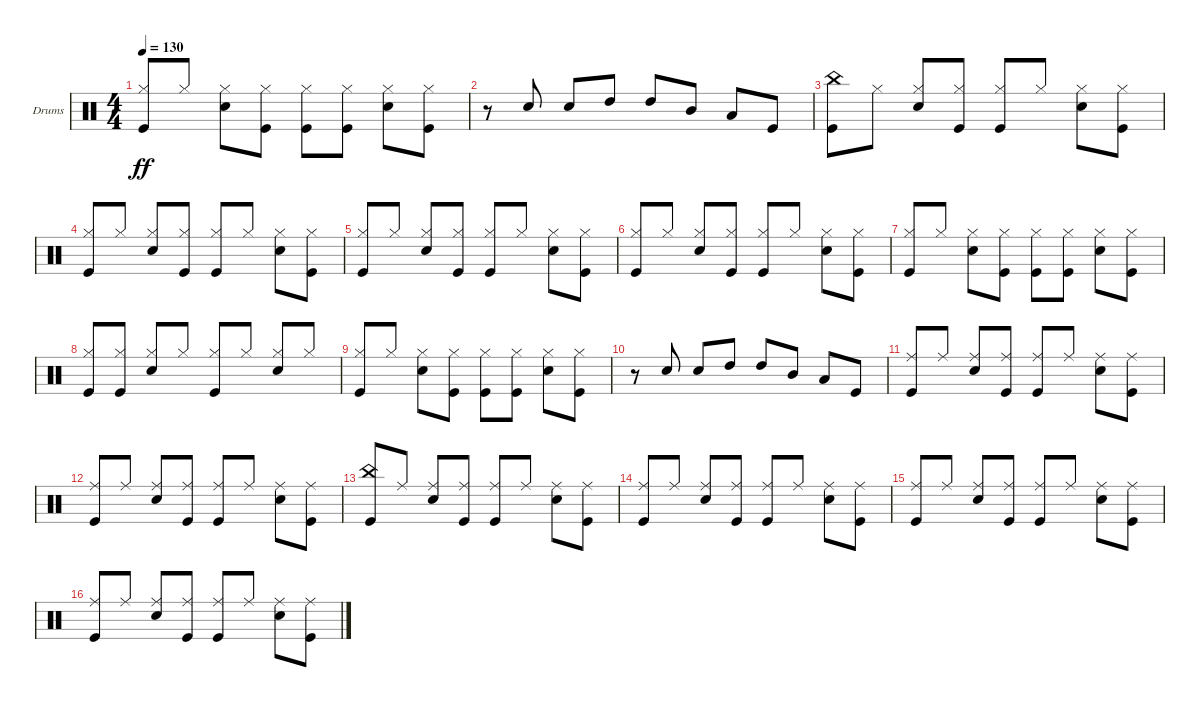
\defaultSystemsLayout 4
\bracketExtendMode groupsimilarinstruments
\firstSystemTrackNameOrientation horizontal
\otherSystemsTrackNameOrientation horizontal
\track ("Drumkit" "Drums") {instrument percussion}
\staff {score}
\articulation defaults
\ts (4 4)
\tempo 130
\clef neutral
\scale
0.333333
\ks c
("Kick (hit)" "Hi-Hat (closed)").8{dy ff beam invert} "Hi-Hat (closed)".8 ("Snare (hit) 2" "Hi-Hat (closed)").8 ("Kick (hit)" "Hi-Hat (closed)").8 ("Kick (hit)" "Hi-Hat (closed)").8 ("Kick (hit)" "Hi-Hat (closed)").8 ("Snare (hit) 2" "Hi-Hat (closed)").8 ("Kick (hit)" "Hi-Hat (closed)").8 |
\scale
0.333333 r.8 "Snare (hit) 2".8{beam invert} "Snare (hit) 2".8{beam invert} "High Tom (hit)".8 "High Tom (hit)".8{beam invert} "Mid Tom (hit)".8 "Low Tom (hit)".8 "Kick (hit)".8 |
\scale
0.333333 ("Kick (hit)" "China (hit)").8 "Hi-Hat (closed)".8 ("Hi-Hat (closed)" "Snare (hit) 2").8 ("Hi-Hat (closed)" "Kick (hit)").8 ("Hi-Hat (closed)" "Kick (hit)").8{beam invert} "Hi-Hat (closed)".8 ("Hi-Hat (closed)" "Snare (hit) 2").8 ("Hi-Hat (closed)" "Kick (hit)").8 |
\scale
0.333333 ("Hi-Hat (closed)" "Kick (hit)").8{beam invert} "Hi-Hat (closed)".8 ("Hi-Hat (closed)" "Snare (hit) 2").8 ("Hi-Hat (closed)" "Kick (hit)").8 ("Hi-Hat (closed)" "Kick (hit)").8{beam invert} "Hi-Hat (closed)".8 ("Hi-Hat (closed)" "Snare (hit) 2").8 ("Hi-Hat (closed)" "Kick (hit)").8 |
\scale
0.333333 ("Hi-Hat (closed)" "Kick (hit)").8{beam invert} "Hi-Hat (closed)".8 ("Hi-Hat (closed)" "Snare (hit) 2").8 ("Hi-Hat (closed)" "Kick (hit)").8 ("Hi-Hat (closed)" "Kick (hit)").8{beam invert} "Hi-Hat (closed)".8 ("Hi-Hat (closed)" "Snare (hit) 2").8 ("Hi-Hat (closed)" "Kick (hit)").8 |
\scale
0.333333 ("Hi-Hat (closed)" "Kick (hit)").8{beam invert} "Hi-Hat (closed)".8 ("Hi-Hat (closed)" "Snare (hit) 2").8 ("Hi-Hat (closed)" "Kick (hit)").8 ("Hi-Hat (closed)" "Kick (hit)").8{beam invert} "Hi-Hat (closed)".8 ("Hi-Hat (closed)" "Snare (hit) 2").8 ("Hi-Hat (closed)" "Kick (hit)").8 |
\scale
0.333333 ("Kick (hit)" "Hi-Hat (closed)").8{beam invert} "Hi-Hat (closed)".8 ("Snare (hit) 2" "Hi-Hat (closed)").8 ("Kick (hit)" "Hi-Hat (closed)").8 ("Kick (hit)" "Hi-Hat (closed)").8 ("Kick (hit)" "Hi-Hat (closed)").8 ("Snare (hit) 2" "Hi-Hat (closed)").8 ("Kick (hit)" "Hi-Hat (closed)").8 |
\scale
0.333333 ("Kick (hit)" "Hi-Hat (closed)").8 ("Kick (hit)" "Hi-Hat (closed)").8 ("Snare (hit) 2" "Hi-Hat (closed)").8{beam invert} "Hi-Hat (closed)".8 ("Hi-Hat (closed)" "Kick (hit)").8{beam invert} "Hi-Hat (closed)".8 ("Hi-Hat (closed)" "Snare (hit) 2").8{beam invert} "Hi-Hat (closed)".8 |
\scale
0.333333 ("Kick (hit)" "Hi-Hat (closed)").8{beam invert} "Hi-Hat (closed)".8 ("Snare (hit) 2" "Hi-Hat (closed)").8 ("Kick (hit)" "Hi-Hat (closed)").8 ("Kick (hit)" "Hi-Hat (closed)").8 ("Kick (hit)" "Hi-Hat (closed)").8 ("Snare (hit) 2" "Hi-Hat (closed)").8 ("Kick (hit)" "Hi-Hat (closed)").8 |
\scale
0.333333 r.8 "Snare (hit) 2".8{beam invert} "Snare (hit) 2".8{beam invert} "High Tom (hit)".8 "High Tom (hit)".8{beam invert} "Mid Tom (hit)".8 "Low Tom (hit)".8 "Kick (hit)".8 |
\scale
0.333333 ("Ride (middle)" "Kick (hit)").8{beam invert} "Ride (middle)".8 ("Ride (middle)" "Snare (hit) 2").8 ("Ride (middle)" "Kick (hit)").8 ("Ride (middle)" "Kick (hit)").8{beam invert} "Ride (middle)".8 ("Ride (middle)" "Snare (hit) 2").8 ("Ride (middle)" "Kick (hit)").8 |
\scale
0.333333 ("Ride (middle)" "Kick (hit)").8{beam invert} "Ride (middle)".8 ("Ride (middle)" "Snare (hit) 2").8 ("Ride (middle)" "Kick (hit)").8 ("Ride (middle)" "Kick (hit)").8{beam invert} "Ride (middle)".8 ("Ride (middle)" "Snare (hit) 2").8 ("Ride (middle)" "Kick (hit)").8 |
\scale
0.333333 ("Kick (hit)" "China (hit)").8{beam invert} "Ride (middle)".8 ("Ride (middle)" "Snare (hit) 2").8 ("Ride (middle)" "Kick (hit)").8 ("Ride (middle)" "Kick (hit)").8{beam invert} "Ride (middle)".8 ("Ride (middle)" "Snare (hit) 2").8 ("Ride (middle)" "Kick (hit)").8 |
\scale
0.333333 ("Ride (middle)" "Kick (hit)").8{beam invert} "Ride (middle)".8 ("Ride (middle)" "Snare (hit) 2").8 ("Ride (middle)" "Kick (hit)").8 ("Ride (middle)" "Kick (hit)").8{beam invert} "Ride (middle)".8 ("Ride (middle)" "Snare (hit) 2").8 ("Ride (middle)" "Kick (hit)").8 |
\scale
0.333333 ("Ride (middle)" "Kick (hit)").8{beam invert} "Ride (middle)".8 ("Ride (middle)" "Snare (hit) 2").8 ("Ride (middle)" "Kick (hit)").8 ("Ride (middle)" "Kick (hit)").8{beam invert} "Ride (middle)".8 ("Ride (middle)" "Snare (hit) 2").8 ("Ride (middle)" "Kick (hit)").8 |
\scale
0.333333 ("Ride (middle)" "Kick (hit)").8{beam invert} "Ride (middle)".8 ("Ride (middle)" "Snare (hit) 2").8 ("Ride (middle)" "Kick (hit)").8 ("Ride (middle)" "Kick (hit)").8{beam invert} "Ride (middle)".8 ("Ride (middle)" "Snare (hit) 2").8 ("Ride (middle)" "Kick (hit)").8
